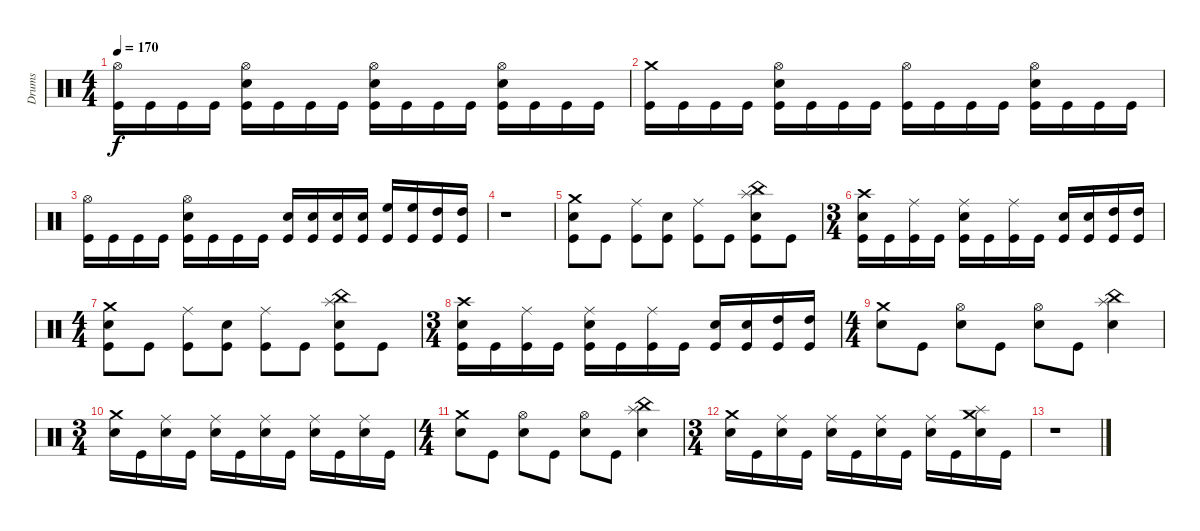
\track ("Drums" "Drums") {instrument percussion}
\staff {score}
\articulation defaults
\ts (4 4)
\tempo 170
\clef neutral
\ks c
("Hi-Hat (open)" "Kick (hit)").16{dy f} "Kick (hit)".16 "Kick (hit)".16 "Kick (hit)".16 ("Hi-Hat (open)" "Electric Snare (hit)" "Kick (hit)").16 "Kick (hit)".16 "Kick (hit)".16 "Kick (hit)".16 ("Hi-Hat (open)" "Electric Snare (hit)" "Kick (hit)").16 "Kick (hit)".16 "Kick (hit)".16 "Kick (hit)".16 ("Hi-Hat (open)" "Electric Snare (hit)" "Kick (hit)").16 "Kick (hit)".16 "Kick (hit)".16 "Kick (hit)".16 |
("Crash medium (hit)" "Kick (hit)").16 "Kick (hit)".16 "Kick (hit)".16 "Kick (hit)".16 ("Hi-Hat (open)" "Electric Snare (hit)" "Kick (hit)").16 "Kick (hit)".16 "Kick (hit)".16 "Kick (hit)".16 ("Hi-Hat (open)" "Kick (hit)").16 "Kick (hit)".16 "Kick (hit)".16 "Kick (hit)".16 ("Hi-Hat (open)" "Electric Snare (hit)" "Kick (hit)").16 "Kick (hit)".16 "Kick (hit)".16 "Kick (hit)".16 |
("Hi-Hat (open)" "Kick (hit)").16 "Kick (hit)".16 "Kick (hit)".16 "Kick (hit)".16 ("Hi-Hat (open)" "Electric Snare (hit)" "Kick (hit)").16 "Kick (hit)".16 "Kick (hit)".16 "Kick (hit)".16 ("Electric Snare (hit)" "Kick (hit)").16 ("Electric Snare (hit)" "Kick (hit)").16 ("Electric Snare (hit)" "Kick (hit)").16 ("Electric Snare (hit)" "Kick (hit)").16 ("High Floor Tom (hit)" "Kick (hit)").16 ("High Floor Tom (hit)" "Kick (hit)").16 ("High Tom (hit)" "Kick (hit)").16 ("High Tom (hit)" "Kick (hit)").16 |
r.1 |
("Crash medium (hit)" "Electric Snare (hit)" "Kick (hit)").8 "Kick (hit)".8 ("Ride (middle)" "Kick (hit)").8 ("Electric Snare (hit)" "Kick (hit)").8 ("Ride (middle)" "Kick (hit)").8 "Kick (hit)".8 ("Splash (hit)" "China (hit)" "Electric Snare (hit)" "Kick (hit)").8 "Kick (hit)".8 |
\ts (3 4)
("Crash high (hit)" "Electric Snare (hit)" "Kick (hit)").16 "Kick (hit)".16 ("Ride (middle)" "Kick (hit)").16 "Kick (hit)".16 ("Ride (middle)" "Electric Snare (hit)" "Kick (hit)").16 "Kick (hit)".16 ("Ride (middle)" "Kick (hit)").16 "Kick (hit)".16 ("Electric Snare (hit)" "Kick (hit)").16 ("Electric Snare (hit)" "Kick (hit)").16 ("High Tom (hit)" "Kick (hit)").16 ("High Tom (hit)" "Kick (hit)").16 |
\ts (4 4)
("Crash medium (hit)" "Electric Snare (hit)" "Kick (hit)").8 "Kick (hit)".8 ("Ride (middle)" "Kick (hit)").8 ("Electric Snare (hit)" "Kick (hit)").8 ("Ride (middle)" "Kick (hit)").8 "Kick (hit)".8 ("Splash (hit)" "China (hit)" "Electric Snare (hit)" "Kick (hit)").8 "Kick (hit)".8 |
\ts (3 4)
("Crash high (hit)" "Electric Snare (hit)" "Kick (hit)").16 "Kick (hit)".16 ("Ride (middle)" "Kick (hit)").16 "Kick (hit)".16 ("Ride (middle)" "Electric Snare (hit)" "Kick (hit)").16 "Kick (hit)".16 ("Ride (middle)" "Kick (hit)").16 "Kick (hit)".16 ("Electric Snare (hit)" "Kick (hit)").16 ("Electric Snare (hit)" "Kick (hit)").16 ("High Tom (hit)" "Kick (hit)").16 ("High Tom (hit)" "Kick (hit)").16 |
\ts (4 4)
("Crash medium (hit)" "Electric Snare (hit)").8 "Kick (hit)".8 ("Hi-Hat (open)" "Electric Snare (hit)").8 "Kick (hit)".8 ("Hi-Hat (open)" "Electric Snare (hit)").8 "Kick (hit)".8 ("Splash (hit)" "China (hit)" "Electric Snare (hit)").4 |
\ts (3 4)
("Crash medium (hit)" "Electric Snare (hit)").16 "Kick (hit)".16 ("Ride (middle)" "Electric Snare (hit)").16 "Kick (hit)".16 ("Ride (middle)" "Electric Snare (hit)").16 "Kick (hit)".16 ("Ride (middle)" "Electric Snare (hit)").16 "Kick (hit)".16 ("Ride (middle)" "Electric Snare (hit)").16 "Kick (hit)".16 ("Ride (middle)" "Electric Snare (hit)").16 "Kick (hit)".16 |
\ts (4 4)
("Crash medium (hit)" "Electric Snare (hit)").8 "Kick (hit)".8 ("Hi-Hat (open)" "Electric Snare (hit)").8 "Kick (hit)".8 ("Hi-Hat (open)" "Electric Snare (hit)").8 "Kick (hit)".8 ("Splash (hit)" "China (hit)" "Electric Snare (hit)").4 |
\ts (3 4)
("Crash medium (hit)" "Electric Snare (hit)").16 "Kick (hit)".16 ("Ride (middle)" "Electric Snare (hit)").16 "Kick (hit)".16 ("Ride (middle)" "Electric Snare (hit)").16 "Kick (hit)".16 ("Ride (middle)" "Electric Snare (hit)").16 "Kick (hit)".16 ("Ride (middle)" "Electric Snare (hit)").16 "Kick (hit)".16 ("Splash (hit)" "Crash medium (hit)" "Electric Snare (hit)").16 "Kick (hit)".16 |
r.1
